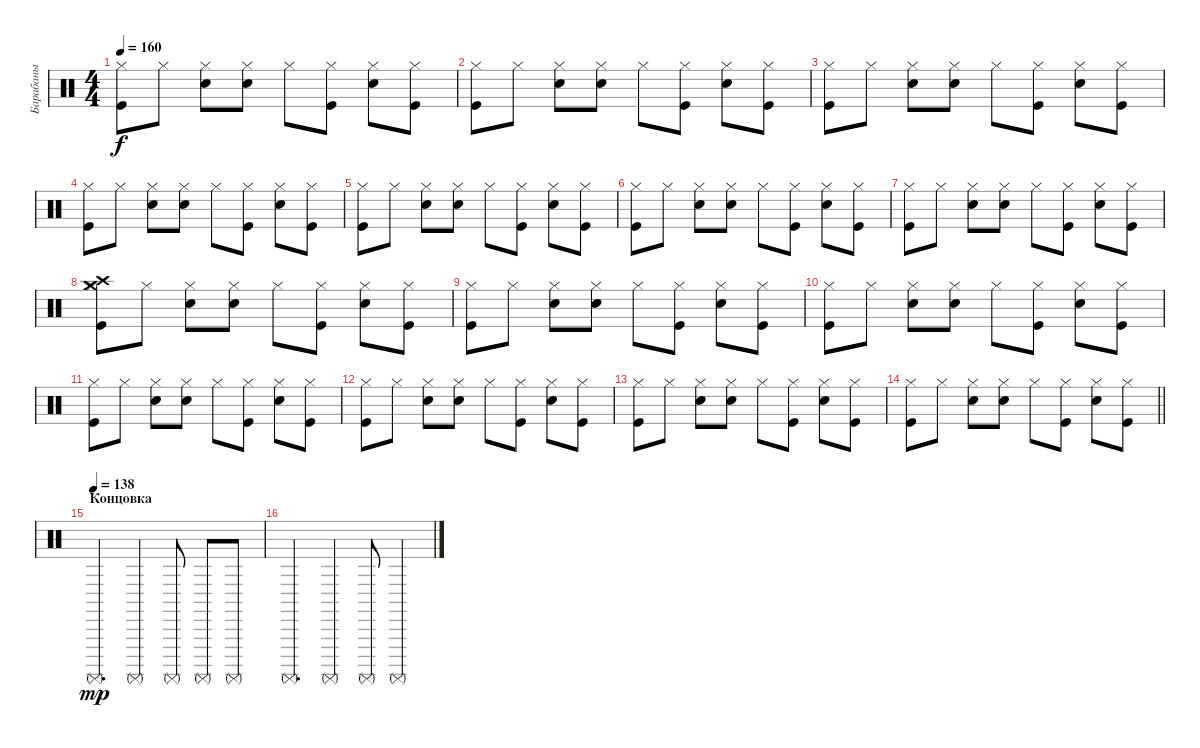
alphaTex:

\track ("Барабаны" "Барабаны") {instrument percussion}
\staff {score}
\articulation defaults
\ts (4 4)
\tempo 160
\clef neutral
\ks c
("Kick (hit)" "Hi-Hat (closed)").8{dy f} "Hi-Hat (closed)".8 ("Snare (hit) 2" "Hi-Hat (closed)").8 ("Snare (hit) 2" "Hi-Hat (closed)").8 "Hi-Hat (closed)".8 ("Kick (hit)" "Hi-Hat (closed)").8 ("Snare (hit) 2" "Hi-Hat (closed)").8 ("Kick (hit)" "Hi-Hat (closed)").8 |
("Kick (hit)" "Hi-Hat (closed)").8 "Hi-Hat (closed)".8 ("Snare (hit) 2" "Hi-Hat (closed)").8 ("Snare (hit) 2" "Hi-Hat (closed)").8 "Hi-Hat (closed)".8 ("Kick (hit)" "Hi-Hat (closed)").8 ("Snare (hit) 2" "Hi-Hat (closed)").8 ("Kick (hit)" "Hi-Hat (closed)").8 |
("Kick (hit)" "Hi-Hat (closed)").8 "Hi-Hat (closed)".8 ("Snare (hit) 2" "Hi-Hat (closed)").8 ("Snare (hit) 2" "Hi-Hat (closed)").8 "Hi-Hat (closed)".8 ("Kick (hit)" "Hi-Hat (closed)").8 ("Snare (hit) 2" "Hi-Hat (closed)").8 ("Kick (hit)" "Hi-Hat (closed)").8 |
("Kick (hit)" "Hi-Hat (closed)").8 "Hi-Hat (closed)".8 ("Snare (hit) 2" "Hi-Hat (closed)").8 ("Snare (hit) 2" "Hi-Hat (closed)").8 "Hi-Hat (closed)".8 ("Kick (hit)" "Hi-Hat (closed)").8 ("Snare (hit) 2" "Hi-Hat (closed)").8 ("Kick (hit)" "Hi-Hat (closed)").8 |
("Kick (hit)" "Hi-Hat (closed)").8 "Hi-Hat (closed)".8 ("Snare (hit) 2" "Hi-Hat (closed)").8 ("Snare (hit) 2" "Hi-Hat (closed)").8 "Hi-Hat (closed)".8 ("Kick (hit)" "Hi-Hat (closed)").8 ("Snare (hit) 2" "Hi-Hat (closed)").8 ("Kick (hit)" "Hi-Hat (closed)").8 |
("Kick (hit)" "Hi-Hat (closed)").8 "Hi-Hat (closed)".8 ("Snare (hit) 2" "Hi-Hat (closed)").8 ("Snare (hit) 2" "Hi-Hat (closed)").8 "Hi-Hat (closed)".8 ("Kick (hit)" "Hi-Hat (closed)").8 ("Snare (hit) 2" "Hi-Hat (closed)").8 ("Kick (hit)" "Hi-Hat (closed)").8 |
("Kick (hit)" "Hi-Hat (closed)").8 "Hi-Hat (closed)".8 ("Snare (hit) 2" "Hi-Hat (closed)").8 ("Snare (hit) 2" "Hi-Hat (closed)").8 "Hi-Hat (closed)".8 ("Kick (hit)" "Hi-Hat (closed)").8 ("Snare (hit) 2" "Hi-Hat (closed)").8 ("Kick (hit)" "Hi-Hat (closed)").8 |
("Kick (hit)" "Hi-Hat (closed)" "Crash high (hit)" "Crash medium (hit)").8 "Hi-Hat (closed)".8 ("Snare (hit) 2" "Hi-Hat (closed)").8 ("Snare (hit) 2" "Hi-Hat (closed)").8 "Hi-Hat (closed)".8 ("Kick (hit)" "Hi-Hat (closed)").8 ("Snare (hit) 2" "Hi-Hat (closed)").8 ("Kick (hit)" "Hi-Hat (closed)").8 |
("Kick (hit)" "Hi-Hat (closed)").8 "Hi-Hat (closed)".8 ("Snare (hit) 2" "Hi-Hat (closed)").8 ("Snare (hit) 2" "Hi-Hat (closed)").8 "Hi-Hat (closed)".8 ("Kick (hit)" "Hi-Hat (closed)").8 ("Snare (hit) 2" "Hi-Hat (closed)").8 ("Kick (hit)" "Hi-Hat (closed)").8 |
("Kick (hit)" "Hi-Hat (closed)").8 "Hi-Hat (closed)".8 ("Snare (hit) 2" "Hi-Hat (closed)").8 ("Snare (hit) 2" "Hi-Hat (closed)").8 "Hi-Hat (closed)".8 ("Kick (hit)" "Hi-Hat (closed)").8 ("Snare (hit) 2" "Hi-Hat (closed)").8 ("Kick (hit)" "Hi-Hat (closed)").8 |
("Kick (hit)" "Hi-Hat (closed)").8 "Hi-Hat (closed)".8 ("Snare (hit) 2" "Hi-Hat (closed)").8 ("Snare (hit) 2" "Hi-Hat (closed)").8 "Hi-Hat (closed)".8 ("Kick (hit)" "Hi-Hat (closed)").8 ("Snare (hit) 2" "Hi-Hat (closed)").8 ("Kick (hit)" "Hi-Hat (closed)").8 |
("Kick (hit)" "Hi-Hat (closed)").8 "Hi-Hat (closed)".8 ("Snare (hit) 2" "Hi-Hat (closed)").8 ("Snare (hit) 2" "Hi-Hat (closed)").8 "Hi-Hat (closed)".8 ("Kick (hit)" "Hi-Hat (closed)").8 ("Snare (hit) 2" "Hi-Hat (closed)").8 ("Kick (hit)" "Hi-Hat (closed)").8 |
("Kick (hit)" "Hi-Hat (closed)").8 "Hi-Hat (closed)".8 ("Snare (hit) 2" "Hi-Hat (closed)").8 ("Snare (hit) 2" "Hi-Hat (closed)").8 "Hi-Hat (closed)".8 ("Kick (hit)" "Hi-Hat (closed)").8 ("Snare (hit) 2" "Hi-Hat (closed)").8 ("Kick (hit)" "Hi-Hat (closed)").8 |
\barLineRight lightlight
("Kick (hit)" "Hi-Hat (closed)").8 "Hi-Hat (closed)".8 ("Snare (hit) 2" "Hi-Hat (closed)").8 ("Snare (hit) 2" "Hi-Hat (closed)").8 "Hi-Hat (closed)".8 ("Kick (hit)" "Hi-Hat (closed)").8 ("Snare (hit) 2" "Hi-Hat (closed)").8 ("Kick (hit)" "Hi-Hat (closed)").8 |
\section ("" "Концовка")
\tempo (138)
"Surdo (mute)".4{d dy mp} "Surdo (mute)".4 "Surdo (mute)".8 "Surdo (mute)".8 "Surdo (mute)".8 |
"Surdo (mute)".4{d} "Surdo (mute)".4 "Surdo (mute)".8 "Surdo (mute)".4
